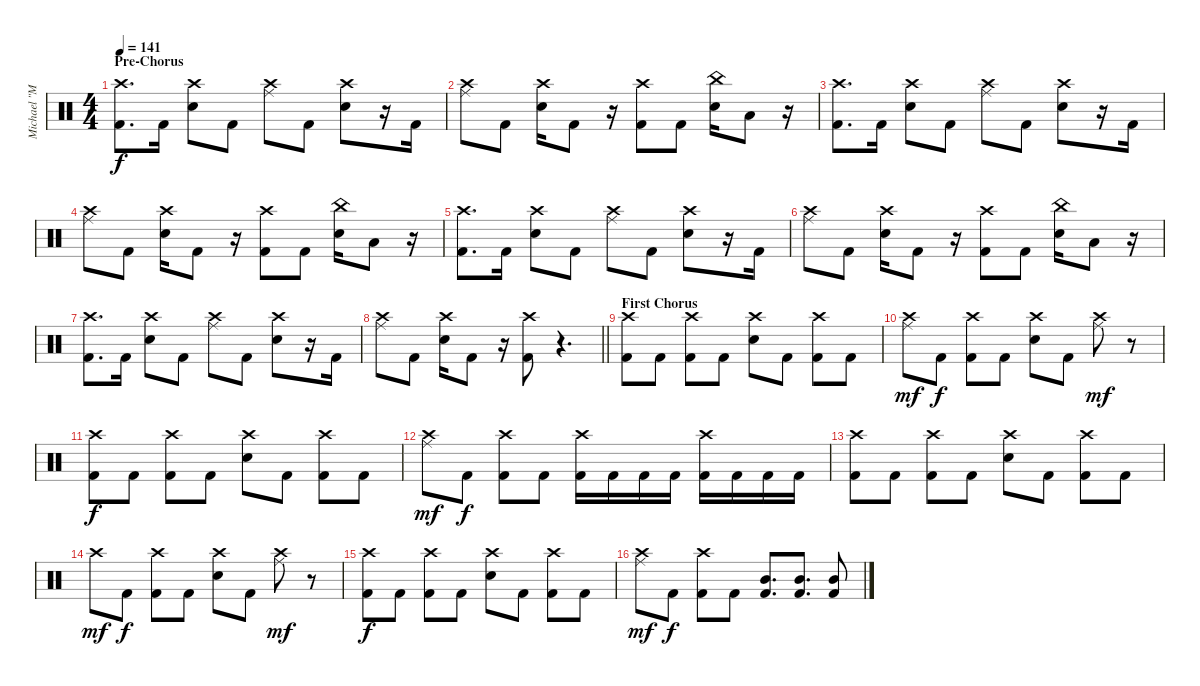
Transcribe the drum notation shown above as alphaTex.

\track ("Michael \"Moose\" Thomas" "Michael \"M") {instrument percussion}
\staff {score}
\articulation defaults
\ts (4 4)
\section ("" "Pre-Chorus")
\tempo 141
\clef neutral
\ks c
("Crash high (hit)" "Kick (hit) 2").8{d dy f} "Kick (hit) 2".16 ("Crash high (hit)" "Snare (hit) 2").8 "Kick (hit) 2".8 ("Crash high (hit)" "Ride (middle)").8 "Kick (hit) 2".8 ("Crash high (hit)" "Snare (hit) 2").8 r.16 "Kick (hit) 2".16 |
("Crash high (hit)" "Ride (middle)").8 "Kick (hit) 2".8 ("Crash high (hit)" "Snare (hit) 2").16 "Kick (hit) 2".8 r.16 ("Crash high (hit)" "Kick (hit) 2").8 "Kick (hit) 2".8 ("China (hit)" "Snare (hit) 2").16 "Low Floor Tom (hit)".8 r.16 |
("Crash high (hit)" "Kick (hit) 2").8{d} "Kick (hit) 2".16 ("Crash high (hit)" "Snare (hit) 2").8 "Kick (hit) 2".8 ("Crash high (hit)" "Ride (middle)").8 "Kick (hit) 2".8 ("Crash high (hit)" "Snare (hit) 2").8 r.16 "Kick (hit) 2".16 |
("Crash high (hit)" "Ride (middle)").8 "Kick (hit) 2".8 ("Crash high (hit)" "Snare (hit) 2").16 "Kick (hit) 2".8 r.16 ("Crash high (hit)" "Kick (hit) 2").8 "Kick (hit) 2".8 ("China (hit)" "Snare (hit) 2").16 "Low Floor Tom (hit)".8 r.16 |
("Crash high (hit)" "Kick (hit) 2").8{d} "Kick (hit) 2".16 ("Crash high (hit)" "Snare (hit) 2").8 "Kick (hit) 2".8 ("Crash high (hit)" "Ride (middle)").8 "Kick (hit) 2".8 ("Crash high (hit)" "Snare (hit) 2").8 r.16 "Kick (hit) 2".16 |
("Crash high (hit)" "Ride (middle)").8 "Kick (hit) 2".8 ("Crash high (hit)" "Snare (hit) 2").16 "Kick (hit) 2".8 r.16 ("Crash high (hit)" "Kick (hit) 2").8 "Kick (hit) 2".8 ("China (hit)" "Snare (hit) 2").16 "Low Floor Tom (hit)".8 r.16 |
("Crash high (hit)" "Kick (hit) 2").8{d} "Kick (hit) 2".16 ("Crash high (hit)" "Snare (hit) 2").8 "Kick (hit) 2".8 ("Crash high (hit)" "Ride (middle)").8 "Kick (hit) 2".8 ("Crash high (hit)" "Snare (hit) 2").8 r.16 "Kick (hit) 2".16 |
\barLineRight lightlight
("Crash high (hit)" "Ride (middle)").8 "Kick (hit) 2".8 ("Crash high (hit)" "Snare (hit) 2").16 "Kick (hit) 2".8 r.16 ("Crash high (hit)" "Kick (hit) 2").8 r.4{d} |
\section ("" "First Chorus")
("Crash high (hit)" "Kick (hit) 2").8 "Kick (hit) 2".8 ("Crash high (hit)" "Kick (hit) 2").8 "Kick (hit) 2".8 ("Crash high (hit)" "Snare (hit) 2").8 "Kick (hit) 2".8 ("Crash high (hit)" "Kick (hit) 2").8 "Kick (hit) 2".8 |
("Crash high (hit)" "Ride (middle)").8{dy mf} "Kick (hit) 2".8{dy f} ("Crash high (hit)" "Kick (hit) 2").8 "Kick (hit) 2".8 ("Crash high (hit)" "Snare (hit) 2").8 "Kick (hit) 2".8 ("Crash high (hit)" "Ride (middle)").8{dy mf} r.8 |
("Crash high (hit)" "Kick (hit) 2").8{dy f} "Kick (hit) 2".8 ("Crash high (hit)" "Kick (hit) 2").8 "Kick (hit) 2".8 ("Crash high (hit)" "Snare (hit) 2").8 "Kick (hit) 2".8 ("Crash high (hit)" "Kick (hit) 2").8 "Kick (hit) 2".8 |
("Crash high (hit)" "Ride (middle)").8{dy mf} "Kick (hit) 2".8{dy f} ("Crash high (hit)" "Kick (hit) 2").8 "Kick (hit) 2".8 ("Crash high (hit)" "Kick (hit) 2").16 "Kick (hit) 2".16 "Kick (hit) 2".16 "Kick (hit) 2".16 ("Crash high (hit)" "Kick (hit) 2").16 "Kick (hit) 2".16 "Kick (hit) 2".16 "Kick (hit) 2".16 |
("Crash high (hit)" "Kick (hit) 2").8 "Kick (hit) 2".8 ("Crash high (hit)" "Kick (hit) 2").8 "Kick (hit) 2".8 ("Crash high (hit)" "Snare (hit) 2").8 "Kick (hit) 2".8 ("Crash high (hit)" "Kick (hit) 2").8 "Kick (hit) 2".8 |
"Crash high (hit)".8{dy mf} "Kick (hit) 2".8{dy f} ("Crash high (hit)" "Kick (hit) 2").8 "Kick (hit) 2".8 ("Crash high (hit)" "Snare (hit) 2").8 "Kick (hit) 2".8 ("Crash high (hit)" "Ride (middle)").8{dy mf} r.8 |
("Crash high (hit)" "Kick (hit) 2").8{dy f} "Kick (hit) 2".8 ("Crash high (hit)" "Kick (hit) 2").8 "Kick (hit) 2".8 ("Crash high (hit)" "Snare (hit) 2").8 "Kick (hit) 2".8 ("Crash high (hit)" "Kick (hit) 2").8 "Kick (hit) 2".8 |
("Crash high (hit)" "Ride (middle)").8{dy mf} "Kick (hit) 2".8{dy f} ("Crash high (hit)" "Kick (hit) 2").8 "Kick (hit) 2".8 ("Mid Tom (hit)" "Kick (hit) 2").8{d} ("Mid Tom (hit)" "Kick (hit) 2").8{d} ("Mid Tom (hit)" "Kick (hit) 2").8
